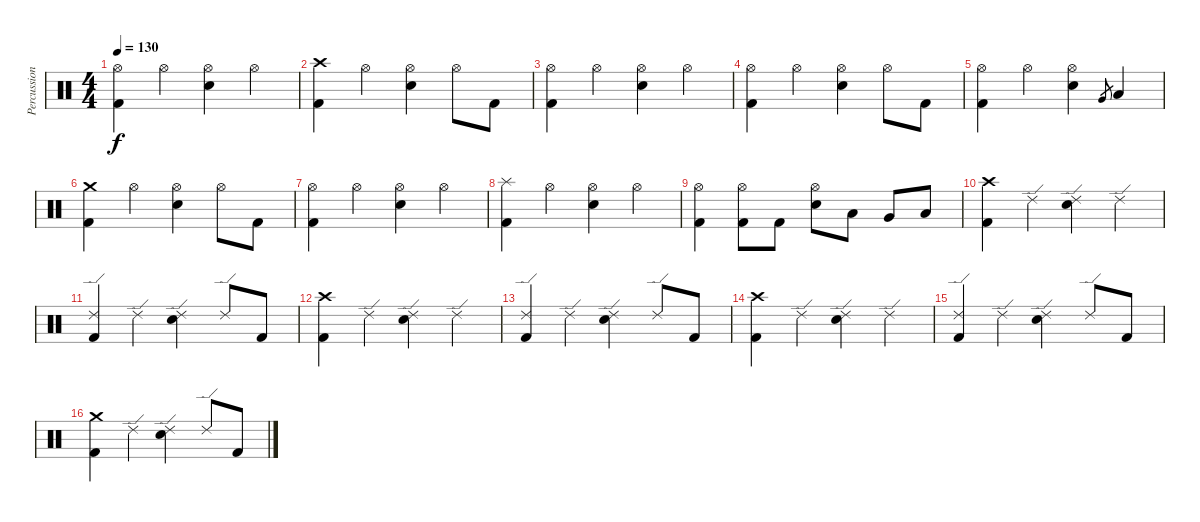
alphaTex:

\track ("Percussion" "Percussion") {instrument percussion}
\staff {score}
\articulation defaults
\ts (4 4)
\tempo 130
\clef neutral
\ks c
("Hi-Hat (open)" "Kick (hit) 2").4{dy f} "Hi-Hat (open)".4 ("Hi-Hat (open)" "Electric Snare (hit)").4 "Hi-Hat (open)".4 |
("Crash high (hit)" "Kick (hit) 2").4 "Hi-Hat (open)".4 ("Hi-Hat (open)" "Electric Snare (hit)").4 "Hi-Hat (open)".8 "Kick (hit) 2".8 |
("Hi-Hat (open)" "Kick (hit) 2").4 "Hi-Hat (open)".4 ("Hi-Hat (open)" "Electric Snare (hit)").4 "Hi-Hat (open)".4 |
("Hi-Hat (open)" "Kick (hit) 2").4 "Hi-Hat (open)".4 ("Hi-Hat (open)" "Electric Snare (hit)").4 "Hi-Hat (open)".8 "Kick (hit) 2".8 |
("Hi-Hat (open)" "Kick (hit) 2").4 "Hi-Hat (open)".4 ("Hi-Hat (open)" "Electric Snare (hit)").4 "Very Low Tom (hit)".8{gr} "Low Floor Tom (hit)".4 |
("Crash medium (hit)" "Kick (hit) 2").4 "Hi-Hat (open)".4 ("Hi-Hat (open)" "Electric Snare (hit)").4 "Hi-Hat (open)".8 "Kick (hit) 2".8 |
("Hi-Hat (open)" "Kick (hit) 2").4 "Hi-Hat (open)".4 ("Hi-Hat (open)" "Electric Snare (hit)").4 "Hi-Hat (open)".4 |
("Splash (hit)" "Kick (hit) 2").4 "Hi-Hat (open)".4 ("Hi-Hat (open)" "Electric Snare (hit)").4 "Hi-Hat (open)".4 |
("Hi-Hat (open)" "Kick (hit) 2").4 ("Hi-Hat (open)" "Kick (hit) 2").8 "Kick (hit) 2".8 ("Hi-Hat (open)" "Electric Snare (hit)").8 "Low Tom (hit)".8 "Very Low Tom (hit)".8 "Low Floor Tom (hit)".8 |
("Crash high (hit)" "Kick (hit) 2").4 "Ride (edge) 2".4 ("Ride (edge) 2" "Electric Snare (hit)").4 "Ride (edge) 2".4 |
("Ride (edge) 2" "Kick (hit) 2").4 "Ride (edge) 2".4 ("Ride (edge) 2" "Electric Snare (hit)").4 "Ride (edge) 2".8 "Kick (hit) 2".8 |
("Crash high (hit)" "Kick (hit) 2").4 "Ride (edge) 2".4 ("Ride (edge) 2" "Electric Snare (hit)").4 "Ride (edge) 2".4 |
("Ride (edge) 2" "Kick (hit) 2").4 "Ride (edge) 2".4 ("Ride (edge) 2" "Electric Snare (hit)").4 "Ride (edge) 2".8 "Kick (hit) 2".8 |
("Crash high (hit)" "Kick (hit) 2").4 "Ride (edge) 2".4 ("Ride (edge) 2" "Electric Snare (hit)").4 "Ride (edge) 2".4 |
("Ride (edge) 2" "Kick (hit) 2").4 "Ride (edge) 2".4 ("Ride (edge) 2" "Electric Snare (hit)").4 "Ride (edge) 2".8 "Kick (hit) 2".8 |
("Crash medium (hit)" "Kick (hit) 2").4 "Ride (edge) 2".4 ("Ride (edge) 2" "Electric Snare (hit)").4 "Ride (edge) 2".8 "Kick (hit) 2".8
